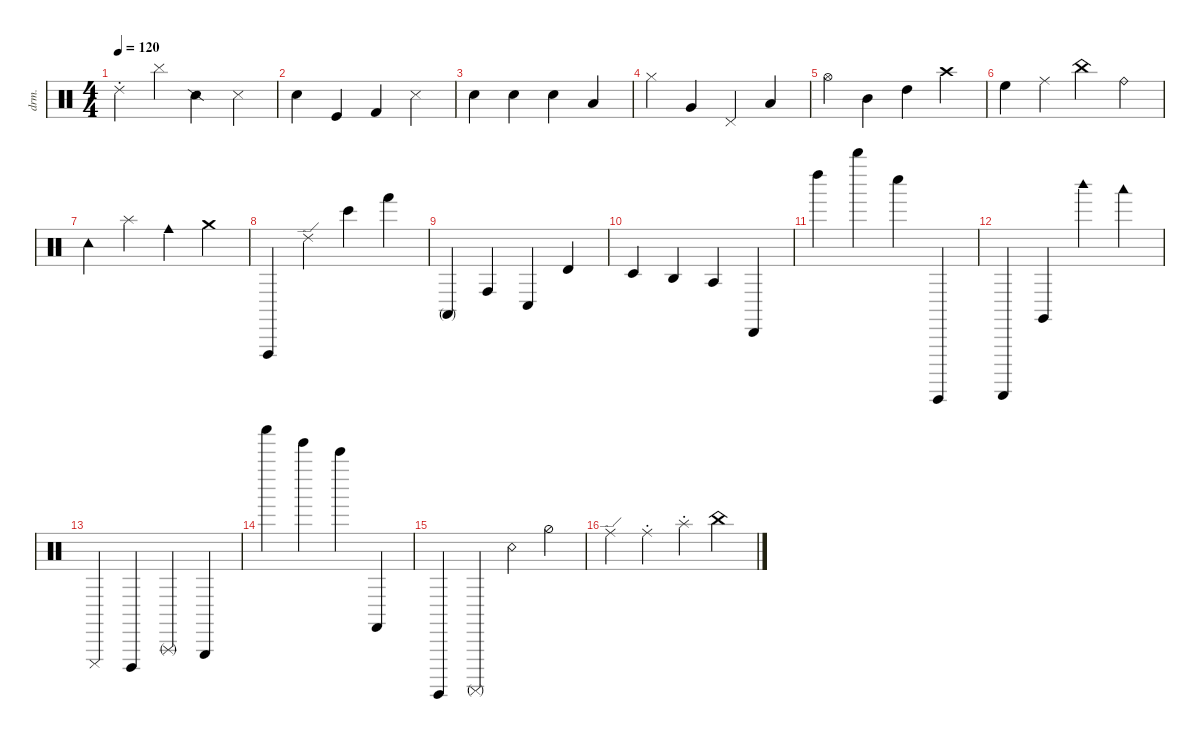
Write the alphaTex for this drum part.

\defaultSystemsLayout 4
\hideDynamics
\bracketExtendMode nobrackets
\track ("Drumkit" "drm.") {instrument percussion}
\staff {score}
\articulation defaults
\ts (4 4)
\tempo 120
\clef neutral
\ks c "Ride (choke) 2".4{dy mf beam Down} "Cymbal (hit)".4{beam Down} "Snare (side stick) 2".4{beam Down} "Metronome (hit)".4{beam Down}
|
"Metronome (bell)".4{beam Down} "Kick (hit)".4{beam Up} "Kick (hit) 2".4{beam Up} "Snare (side stick) 3".4{beam Down} |
"Snare (hit) 2".4{beam Down} "Hand Clap (hit)".4{beam Down} "Electric Snare (hit)".4{beam Down} "Low Floor Tom (hit)".4{beam Up} |
"Hi-Hat (closed)".4{beam Down} "Very Low Tom (hit)".4{beam Up} "Pedal Hi-Hat (hit)".4{beam Up} "Low Tom (hit)".4{beam Up} |
"Hi-Hat (open)".4{beam Down} "Mid Tom (hit)".4{beam Down} "High Tom (hit)".4{beam Down} "Crash high (hit)".4{beam Down} |
"High Floor Tom (hit)".4{beam Down} "Ride (middle)".4{beam Down} "China (hit)".4{beam Down} "Ride (bell)".4{beam Down} |
"Tambourine (hit)".4{beam Down} "Splash (hit)".4{beam Down} "Cowbell medium (hit)".4{beam Down} "Crash medium (hit)".4{beam Down} |
"Vibraslap (hit)".4{beam Up} "Ride (edge) 2".4{beam Down} "Bongo High (hit)".4{beam Down} "Hand (hit)".4{beam Down} |
"Conga high (mute)".4{beam Up} "Conga high (hit)".4{beam Up} "Conga low (hit)".4{beam Up} "Timbale high (hit)".4{beam Up} |
"Timbale low (hit)".4{beam Up} "Agogo high (hit)".4{beam Up} "Agogo tow (hit)".4{beam Up} "Cabasa (hit)".4{beam Up} |
"Left Maraca (hit)".4{beam Down} "Whistle high (hit)".4{beam Down} "Whistle low (hit)".4{beam Down} "Guiro (hit)".4{beam Up} |
"Guiro (scrap-return)".4{beam Up} "Claves (hit)".4{beam Up} "Woodblock high (hit)".4{beam Down} "Woodblock low (hit)".4{beam Down} |
"Cuica (mute)".4{beam Up} "Cuica (open)".4{beam Up} "Triangle (rnute)".4{beam Up} "Triangle (hit)".4{beam Up} |
"Shaker (hit)".4{beam Down} "Jingle Bell (hit)".4{beam Down} "Bell Tree (hit)".4{beam Down} "Castanets (hit)".4{beam Up} |
"Surdo (hit)".4{beam Up} "Surdo (mute)".4{beam Up} "Snare (rim shot)".4{beam Down} "Hi-Hat (half)".4{beam Down} |
"Ride (edge)".4{beam Down} "Ride (choke)".4{beam Down} "Splash (choke)".4{beam Down} "China (choke)".4{beam Down}
